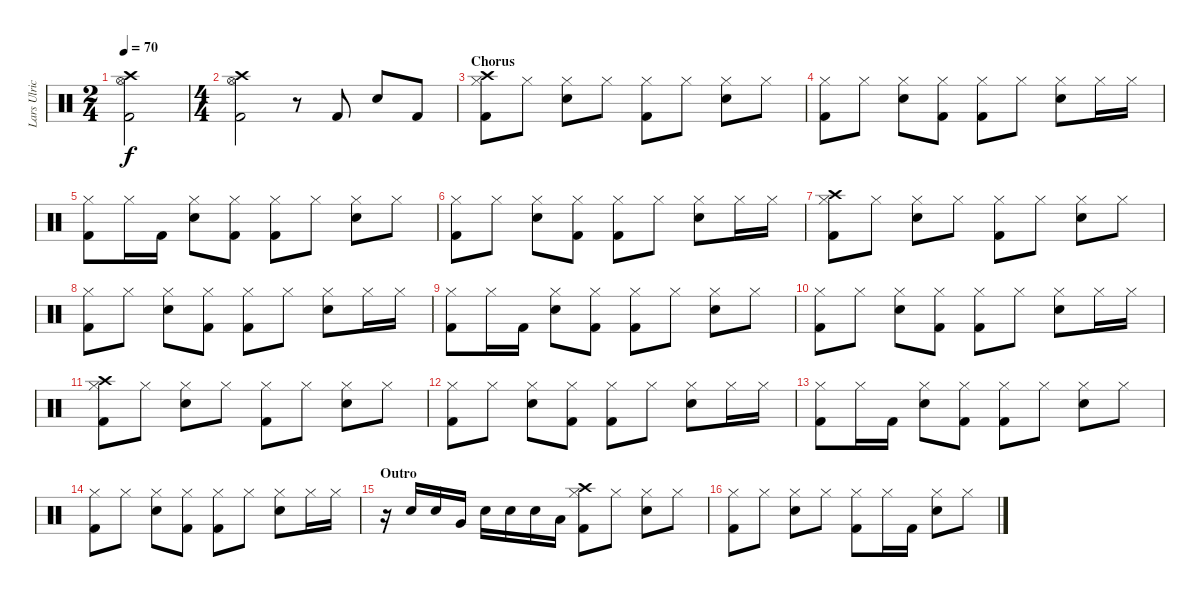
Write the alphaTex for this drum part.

\track ("Lars Ulrich (Drums)" "Lars Ulric") {instrument percussion}
\staff {score}
\articulation defaults
\ts (2 4)
\tempo 70
\clef neutral
\ks c
("Crash high (hit)" "Hi-Hat (open)" "Kick (hit) 2").2{dy f} |
\ts (4 4)
("Crash high (hit)" "Hi-Hat (open)" "Kick (hit) 2").2 r.8 "Kick (hit) 2".8 "Electric Snare (hit)".8 "Kick (hit) 2".8 |
\section ("" "Chorus")
("Crash high (hit)" "Hi-Hat (closed)" "Kick (hit) 2").8 "Hi-Hat (closed)".8 ("Electric Snare (hit)" "Hi-Hat (closed)").8 "Hi-Hat (closed)".8 ("Hi-Hat (closed)" "Kick (hit) 2").8 "Hi-Hat (closed)".8 ("Electric Snare (hit)" "Hi-Hat (closed)").8 "Hi-Hat (closed)".8 |
("Hi-Hat (closed)" "Kick (hit) 2").8 "Hi-Hat (closed)".8 ("Electric Snare (hit)" "Hi-Hat (closed)").8 ("Hi-Hat (closed)" "Kick (hit) 2").8 ("Hi-Hat (closed)" "Kick (hit) 2").8 "Hi-Hat (closed)".8 ("Electric Snare (hit)" "Hi-Hat (closed)").8 "Hi-Hat (closed)".16 "Hi-Hat (closed)".16 |
("Hi-Hat (closed)" "Kick (hit) 2").8 "Hi-Hat (closed)".16 "Kick (hit) 2".16 ("Electric Snare (hit)" "Hi-Hat (closed)").8 ("Hi-Hat (closed)" "Kick (hit) 2").8 ("Hi-Hat (closed)" "Kick (hit) 2").8 "Hi-Hat (closed)".8 ("Electric Snare (hit)" "Hi-Hat (closed)").8 "Hi-Hat (closed)".8 |
("Hi-Hat (closed)" "Kick (hit) 2").8 "Hi-Hat (closed)".8 ("Electric Snare (hit)" "Hi-Hat (closed)").8 ("Hi-Hat (closed)" "Kick (hit) 2").8 ("Hi-Hat (closed)" "Kick (hit) 2").8 "Hi-Hat (closed)".8 ("Electric Snare (hit)" "Hi-Hat (closed)").8 "Hi-Hat (closed)".16 "Hi-Hat (closed)".16 |
("Crash high (hit)" "Hi-Hat (closed)" "Kick (hit) 2").8 "Hi-Hat (closed)".8 ("Electric Snare (hit)" "Hi-Hat (closed)").8 "Hi-Hat (closed)".8 ("Hi-Hat (closed)" "Kick (hit) 2").8 "Hi-Hat (closed)".8 ("Electric Snare (hit)" "Hi-Hat (closed)").8 "Hi-Hat (closed)".8 |
("Hi-Hat (closed)" "Kick (hit) 2").8 "Hi-Hat (closed)".8 ("Electric Snare (hit)" "Hi-Hat (closed)").8 ("Hi-Hat (closed)" "Kick (hit) 2").8 ("Hi-Hat (closed)" "Kick (hit) 2").8 "Hi-Hat (closed)".8 ("Electric Snare (hit)" "Hi-Hat (closed)").8 "Hi-Hat (closed)".16 "Hi-Hat (closed)".16 |
("Hi-Hat (closed)" "Kick (hit) 2").8 "Hi-Hat (closed)".16 "Kick (hit) 2".16 ("Electric Snare (hit)" "Hi-Hat (closed)").8 ("Hi-Hat (closed)" "Kick (hit) 2").8 ("Hi-Hat (closed)" "Kick (hit) 2").8 "Hi-Hat (closed)".8 ("Electric Snare (hit)" "Hi-Hat (closed)").8 "Hi-Hat (closed)".8 |
("Hi-Hat (closed)" "Kick (hit) 2").8 "Hi-Hat (closed)".8 ("Electric Snare (hit)" "Hi-Hat (closed)").8 ("Hi-Hat (closed)" "Kick (hit) 2").8 ("Hi-Hat (closed)" "Kick (hit) 2").8 "Hi-Hat (closed)".8 ("Electric Snare (hit)" "Hi-Hat (closed)").8 "Hi-Hat (closed)".16 "Hi-Hat (closed)".16 |
("Crash high (hit)" "Hi-Hat (closed)" "Kick (hit) 2").8 "Hi-Hat (closed)".8 ("Electric Snare (hit)" "Hi-Hat (closed)").8 "Hi-Hat (closed)".8 ("Hi-Hat (closed)" "Kick (hit) 2").8 "Hi-Hat (closed)".8 ("Electric Snare (hit)" "Hi-Hat (closed)").8 "Hi-Hat (closed)".8 |
("Hi-Hat (closed)" "Kick (hit) 2").8 "Hi-Hat (closed)".8 ("Electric Snare (hit)" "Hi-Hat (closed)").8 ("Hi-Hat (closed)" "Kick (hit) 2").8 ("Hi-Hat (closed)" "Kick (hit) 2").8 "Hi-Hat (closed)".8 ("Electric Snare (hit)" "Hi-Hat (closed)").8 "Hi-Hat (closed)".16 "Hi-Hat (closed)".16 |
("Hi-Hat (closed)" "Kick (hit) 2").8 "Hi-Hat (closed)".16 "Kick (hit) 2".16 ("Electric Snare (hit)" "Hi-Hat (closed)").8 ("Hi-Hat (closed)" "Kick (hit) 2").8 ("Hi-Hat (closed)" "Kick (hit) 2").8 "Hi-Hat (closed)".8 ("Electric Snare (hit)" "Hi-Hat (closed)").8 "Hi-Hat (closed)".8 |
("Hi-Hat (closed)" "Kick (hit) 2").8 "Hi-Hat (closed)".8 ("Electric Snare (hit)" "Hi-Hat (closed)").8 ("Hi-Hat (closed)" "Kick (hit) 2").8 ("Hi-Hat (closed)" "Kick (hit) 2").8 "Hi-Hat (closed)".8 ("Electric Snare (hit)" "Hi-Hat (closed)").8 "Hi-Hat (closed)".16 "Hi-Hat (closed)".16 |
\section ("" "Outro")
r.16 "Electric Snare (hit)".16 "Electric Snare (hit)".16 "Very Low Tom (hit)".16 "Electric Snare (hit)".16 "Electric Snare (hit)".16 "Electric Snare (hit)".16 "Low Floor Tom (hit)".16 ("Crash high (hit)" "Hi-Hat (closed)" "Kick (hit) 2").8 "Hi-Hat (closed)".8 ("Electric Snare (hit)" "Hi-Hat (closed)").8 "Hi-Hat (closed)".8 |
("Hi-Hat (closed)" "Kick (hit) 2").8 "Hi-Hat (closed)".8 ("Electric Snare (hit)" "Hi-Hat (closed)").8 "Hi-Hat (closed)".8 ("Hi-Hat (closed)" "Kick (hit) 2").8 "Hi-Hat (closed)".16 "Kick (hit) 2".16 ("Electric Snare (hit)" "Hi-Hat (closed)").8 "Hi-Hat (closed)".8
